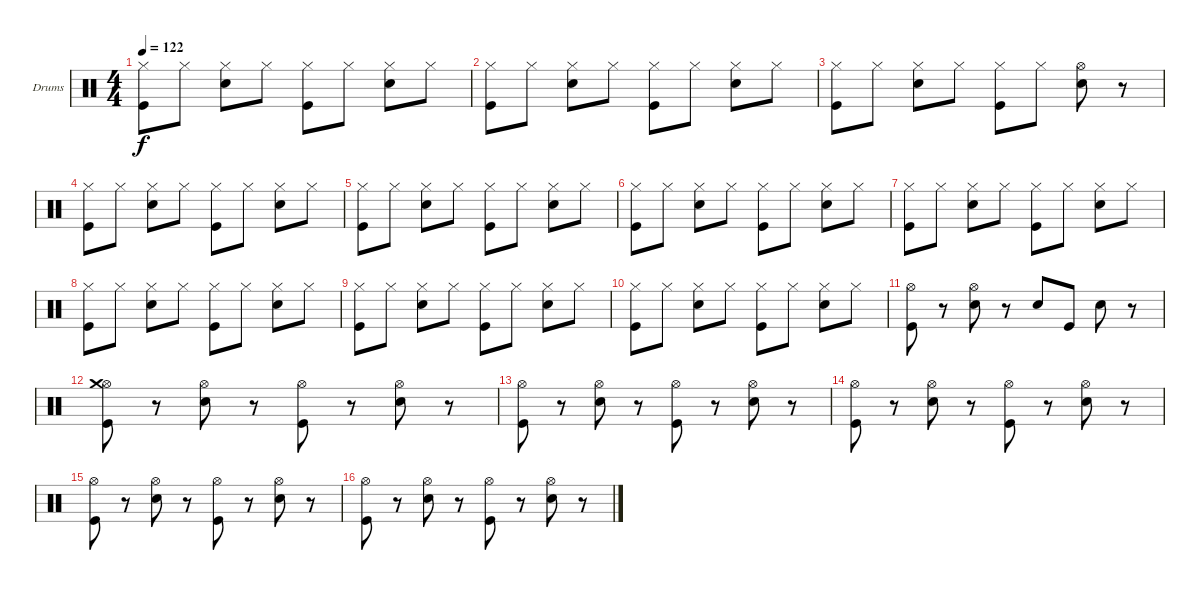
\bracketExtendMode groupsimilarinstruments
\firstSystemTrackNameOrientation horizontal
\otherSystemsTrackNameOrientation horizontal
\track ("Drumkit" "Drums") {instrument percussion}
\staff {score}
\articulation defaults
\ts (4 4)
\tempo 122
\clef neutral
\ks c
("Kick (hit)" "Hi-Hat (closed)").8{dy f} "Hi-Hat (closed)".8 ("Snare (hit) 2" "Hi-Hat (closed)").8 "Hi-Hat (closed)".8 ("Kick (hit)" "Hi-Hat (closed)").8 "Hi-Hat (closed)".8 ("Snare (hit) 2" "Hi-Hat (closed)").8 "Hi-Hat (closed)".8 |
("Kick (hit)" "Hi-Hat (closed)").8 "Hi-Hat (closed)".8 ("Snare (hit) 2" "Hi-Hat (closed)").8 "Hi-Hat (closed)".8 ("Kick (hit)" "Hi-Hat (closed)").8 "Hi-Hat (closed)".8 ("Snare (hit) 2" "Hi-Hat (closed)").8 "Hi-Hat (closed)".8 |
("Kick (hit)" "Hi-Hat (closed)").8 "Hi-Hat (closed)".8 ("Snare (hit) 2" "Hi-Hat (closed)").8 "Hi-Hat (closed)".8 ("Kick (hit)" "Hi-Hat (closed)").8 "Hi-Hat (closed)".8 ("Snare (hit) 2" "Hi-Hat (open)").8 r.8 |
("Kick (hit)" "Hi-Hat (closed)").8 "Hi-Hat (closed)".8 ("Snare (hit) 2" "Hi-Hat (closed)").8 "Hi-Hat (closed)".8 ("Kick (hit)" "Hi-Hat (closed)").8 "Hi-Hat (closed)".8 ("Snare (hit) 2" "Hi-Hat (closed)").8 "Hi-Hat (closed)".8 |
("Kick (hit)" "Hi-Hat (closed)").8 "Hi-Hat (closed)".8 ("Snare (hit) 2" "Hi-Hat (closed)").8 "Hi-Hat (closed)".8 ("Kick (hit)" "Hi-Hat (closed)").8 "Hi-Hat (closed)".8 ("Snare (hit) 2" "Hi-Hat (closed)").8 "Hi-Hat (closed)".8 |
("Kick (hit)" "Hi-Hat (closed)").8 "Hi-Hat (closed)".8 ("Snare (hit) 2" "Hi-Hat (closed)").8 "Hi-Hat (closed)".8 ("Kick (hit)" "Hi-Hat (closed)").8 "Hi-Hat (closed)".8 ("Snare (hit) 2" "Hi-Hat (closed)").8 "Hi-Hat (closed)".8 |
("Kick (hit)" "Hi-Hat (closed)").8 "Hi-Hat (closed)".8 ("Snare (hit) 2" "Hi-Hat (closed)").8 "Hi-Hat (closed)".8 ("Kick (hit)" "Hi-Hat (closed)").8 "Hi-Hat (closed)".8 ("Snare (hit) 2" "Hi-Hat (closed)").8 "Hi-Hat (closed)".8 |
("Kick (hit)" "Hi-Hat (closed)").8 "Hi-Hat (closed)".8 ("Snare (hit) 2" "Hi-Hat (closed)").8 "Hi-Hat (closed)".8 ("Kick (hit)" "Hi-Hat (closed)").8 "Hi-Hat (closed)".8 ("Snare (hit) 2" "Hi-Hat (closed)").8 "Hi-Hat (closed)".8 |
("Kick (hit)" "Hi-Hat (closed)").8 "Hi-Hat (closed)".8 ("Snare (hit) 2" "Hi-Hat (closed)").8 "Hi-Hat (closed)".8 ("Kick (hit)" "Hi-Hat (closed)").8 "Hi-Hat (closed)".8 ("Snare (hit) 2" "Hi-Hat (closed)").8 "Hi-Hat (closed)".8 |
("Kick (hit)" "Hi-Hat (closed)").8 "Hi-Hat (closed)".8 ("Snare (hit) 2" "Hi-Hat (closed)").8 "Hi-Hat (closed)".8 ("Kick (hit)" "Hi-Hat (closed)").8 "Hi-Hat (closed)".8 ("Snare (hit) 2" "Hi-Hat (closed)").8 "Hi-Hat (closed)".8 |
("Kick (hit)" "Hi-Hat (open)").8 r.8 ("Snare (hit) 2" "Hi-Hat (open)").8 r.8 "Snare (hit) 2".8 "Kick (hit)".8 "Snare (hit) 2".8 r.8 |
("Kick (hit)" "Hi-Hat (open)" "Crash medium (hit)").8 r.8 ("Snare (hit) 2" "Hi-Hat (open)").8 r.8 ("Kick (hit)" "Hi-Hat (open)").8 r.8 ("Snare (hit) 2" "Hi-Hat (open)").8 r.8 |
("Kick (hit)" "Hi-Hat (open)").8 r.8 ("Snare (hit) 2" "Hi-Hat (open)").8 r.8 ("Kick (hit)" "Hi-Hat (open)").8 r.8 ("Snare (hit) 2" "Hi-Hat (open)").8 r.8 |
("Kick (hit)" "Hi-Hat (open)").8 r.8 ("Snare (hit) 2" "Hi-Hat (open)").8 r.8 ("Kick (hit)" "Hi-Hat (open)").8 r.8 ("Snare (hit) 2" "Hi-Hat (open)").8 r.8 |
("Kick (hit)" "Hi-Hat (open)").8 r.8 ("Snare (hit) 2" "Hi-Hat (open)").8 r.8 ("Kick (hit)" "Hi-Hat (open)").8 r.8 ("Snare (hit) 2" "Hi-Hat (open)").8 r.8 |
("Kick (hit)" "Hi-Hat (open)").8 r.8 ("Snare (hit) 2" "Hi-Hat (open)").8 r.8 ("Kick (hit)" "Hi-Hat (open)").8 r.8 ("Snare (hit) 2" "Hi-Hat (open)").8 r.8
